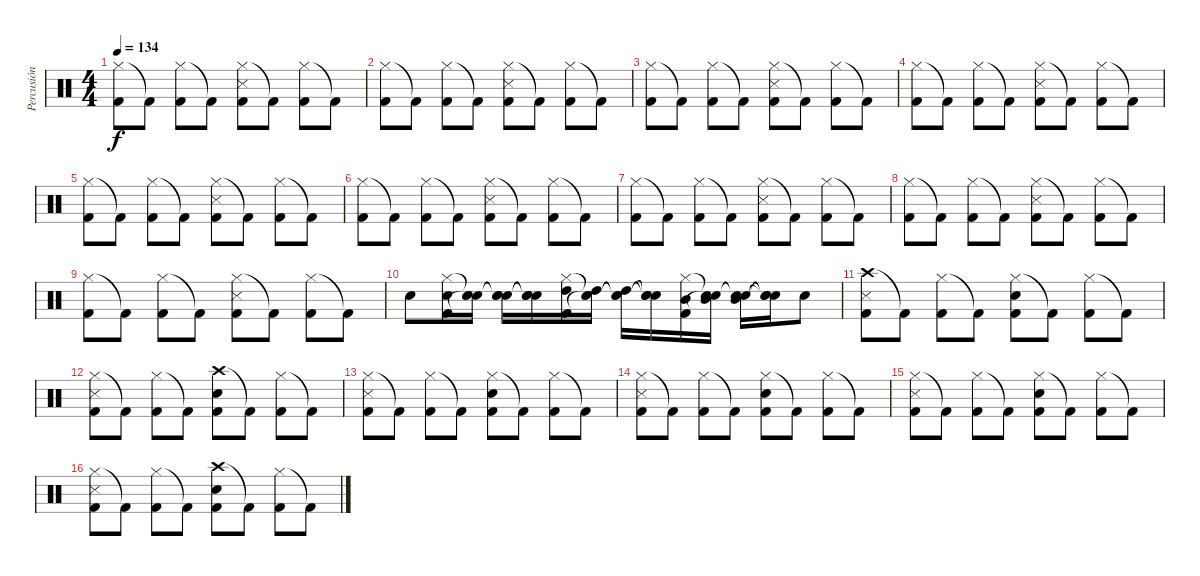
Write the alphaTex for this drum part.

\track ("Percusión" "Percusión") {instrument percussion}
\staff {score}
\articulation defaults
\ts (4 4)
\tempo 134
\clef neutral
\ks c
("Hi-Hat (closed)" "Kick (hit) 2").8{dy f} "Kick (hit) 2"{t}.8 ("Hi-Hat (closed)" "Kick (hit) 2").8 "Kick (hit) 2"{t}.8 ("Hi-Hat (closed)" "Snare (side stick) 3" "Kick (hit) 2").8 "Kick (hit) 2"{t}.8 ("Hi-Hat (closed)" "Kick (hit) 2").8 "Kick (hit) 2"{t}.8 |
("Hi-Hat (closed)" "Kick (hit) 2").8 "Kick (hit) 2"{t}.8 ("Hi-Hat (closed)" "Kick (hit) 2").8 "Kick (hit) 2"{t}.8 ("Hi-Hat (closed)" "Snare (side stick) 3" "Kick (hit) 2").8 "Kick (hit) 2"{t}.8 ("Hi-Hat (closed)" "Kick (hit) 2").8 "Kick (hit) 2"{t}.8 |
("Hi-Hat (closed)" "Kick (hit) 2").8 "Kick (hit) 2"{t}.8 ("Hi-Hat (closed)" "Kick (hit) 2").8 "Kick (hit) 2"{t}.8 ("Hi-Hat (closed)" "Snare (side stick) 3" "Kick (hit) 2").8 "Kick (hit) 2"{t}.8 ("Hi-Hat (closed)" "Kick (hit) 2").8 "Kick (hit) 2"{t}.8 |
("Hi-Hat (closed)" "Kick (hit) 2").8 "Kick (hit) 2"{t}.8 ("Hi-Hat (closed)" "Kick (hit) 2").8 "Kick (hit) 2"{t}.8 ("Hi-Hat (closed)" "Snare (side stick) 3" "Kick (hit) 2").8 "Kick (hit) 2"{t}.8 ("Hi-Hat (closed)" "Kick (hit) 2").8 "Kick (hit) 2"{t}.8 |
("Hi-Hat (closed)" "Kick (hit) 2").8 "Kick (hit) 2"{t}.8 ("Hi-Hat (closed)" "Kick (hit) 2").8 "Kick (hit) 2"{t}.8 ("Hi-Hat (closed)" "Snare (side stick) 3" "Kick (hit) 2").8 "Kick (hit) 2"{t}.8 ("Hi-Hat (closed)" "Kick (hit) 2").8 "Kick (hit) 2"{t}.8 |
("Hi-Hat (closed)" "Kick (hit) 2").8 "Kick (hit) 2"{t}.8 ("Hi-Hat (closed)" "Kick (hit) 2").8 "Kick (hit) 2"{t}.8 ("Hi-Hat (closed)" "Snare (side stick) 3" "Kick (hit) 2").8 "Kick (hit) 2"{t}.8 ("Hi-Hat (closed)" "Kick (hit) 2").8 "Kick (hit) 2"{t}.8 |
("Hi-Hat (closed)" "Kick (hit) 2").8 "Kick (hit) 2"{t}.8 ("Hi-Hat (closed)" "Kick (hit) 2").8 "Kick (hit) 2"{t}.8 ("Hi-Hat (closed)" "Snare (side stick) 3" "Kick (hit) 2").8 "Kick (hit) 2"{t}.8 ("Hi-Hat (closed)" "Kick (hit) 2").8 "Kick (hit) 2"{t}.8 |
("Hi-Hat (closed)" "Kick (hit) 2").8 "Kick (hit) 2"{t}.8 ("Hi-Hat (closed)" "Kick (hit) 2").8 "Kick (hit) 2"{t}.8 ("Hi-Hat (closed)" "Snare (side stick) 3" "Kick (hit) 2").8 "Kick (hit) 2"{t}.8 ("Hi-Hat (closed)" "Kick (hit) 2").8 "Kick (hit) 2"{t}.8 |
("Hi-Hat (closed)" "Kick (hit) 2").8 "Kick (hit) 2"{t}.8 ("Hi-Hat (closed)" "Kick (hit) 2").8 "Kick (hit) 2"{t}.8 ("Hi-Hat (closed)" "Snare (side stick) 3" "Kick (hit) 2").8 "Kick (hit) 2"{t}.8 ("Hi-Hat (closed)" "Kick (hit) 2").8 "Kick (hit) 2"{t}.8 |
"Electric Snare (hit)".8 ("Hi-Hat (closed)" "Electric Snare (hit)" "Kick (hit) 2").16 ("Snare (hit)"{t} "Electric Snare (hit)" "Snare (hit)"{t}).16 ("Snare (hit)"{t} "Electric Snare (hit)" "Snare (hit)"{t}).16 ("Snare (hit)"{t} "Snare (hit)"{t} "Snare (hit)"{t}).16 ("Hi-Hat (closed)" "High Tom (hit)" "Kick (hit) 2").16 ("Snare (hit)"{t} "High Tom (hit)" "Snare (hit)"{t}).16 ("Snare (hit)"{t} "High Tom (hit)" "Snare (hit)"{t}).16 ("Snare (hit)"{t} "Snare (hit)"{t} "Snare (hit)"{t}).16 ("Hi-Hat (closed)" "Mid Tom (hit)" "Kick (hit) 2").16 ("Snare (hit)"{t} "Mid Tom (hit)" "Snare (hit)"{t}).16 ("Snare (hit)"{t} "Mid Tom (hit)" "Snare (hit)"{t}).16 ("Snare (hit)"{t} "Snare (hit)"{t} "Snare (hit)"{t}).16 "Electric Snare (hit)".8 |
("Crash high (hit)" "Snare (side stick) 3" "Kick (hit) 2").8 "Kick (hit) 2"{t}.8 ("Hi-Hat (closed)" "Kick (hit) 2").8 "Kick (hit) 2"{t}.8 ("Hi-Hat (closed)" "Snare (hit) 2" "Kick (hit) 2").8 "Kick (hit) 2"{t}.8 ("Hi-Hat (closed)" "Kick (hit) 2").8 "Kick (hit) 2"{t}.8 |
("Hi-Hat (closed)" "Snare (side stick) 3" "Kick (hit) 2").8 "Kick (hit) 2"{t}.8 ("Hi-Hat (closed)" "Kick (hit) 2").8 "Kick (hit) 2"{t}.8 ("Crash high (hit)" "Snare (hit) 2" "Kick (hit) 2").8 "Kick (hit) 2"{t}.8 ("Hi-Hat (closed)" "Kick (hit) 2").8 "Kick (hit) 2"{t}.8 |
("Hi-Hat (closed)" "Snare (side stick) 3" "Kick (hit) 2").8 "Kick (hit) 2"{t}.8 ("Hi-Hat (closed)" "Kick (hit) 2").8 "Kick (hit) 2"{t}.8 ("Hi-Hat (closed)" "Snare (hit) 2" "Kick (hit) 2").8 "Kick (hit) 2"{t}.8 ("Hi-Hat (closed)" "Kick (hit) 2").8 "Kick (hit) 2"{t}.8 |
("Hi-Hat (closed)" "Snare (side stick) 3" "Kick (hit) 2").8 "Kick (hit) 2"{t}.8 ("Hi-Hat (closed)" "Kick (hit) 2").8 "Kick (hit) 2"{t}.8 ("Hi-Hat (closed)" "Snare (hit) 2" "Kick (hit) 2").8 "Kick (hit) 2"{t}.8 ("Hi-Hat (closed)" "Kick (hit) 2").8 "Kick (hit) 2"{t}.8 |
("Hi-Hat (closed)" "Snare (side stick) 3" "Kick (hit) 2").8 "Kick (hit) 2"{t}.8 ("Hi-Hat (closed)" "Kick (hit) 2").8 "Kick (hit) 2"{t}.8 ("Hi-Hat (closed)" "Snare (hit) 2" "Kick (hit) 2").8 "Kick (hit) 2"{t}.8 ("Hi-Hat (closed)" "Kick (hit) 2").8 "Kick (hit) 2"{t}.8 |
("Hi-Hat (closed)" "Snare (side stick) 3" "Kick (hit) 2").8 "Kick (hit) 2"{t}.8 ("Hi-Hat (closed)" "Kick (hit) 2").8 "Kick (hit) 2"{t}.8 ("Crash high (hit)" "Snare (hit) 2" "Kick (hit) 2").8 "Kick (hit) 2"{t}.8 ("Hi-Hat (closed)" "Kick (hit) 2").8 "Kick (hit) 2"{t}.8
